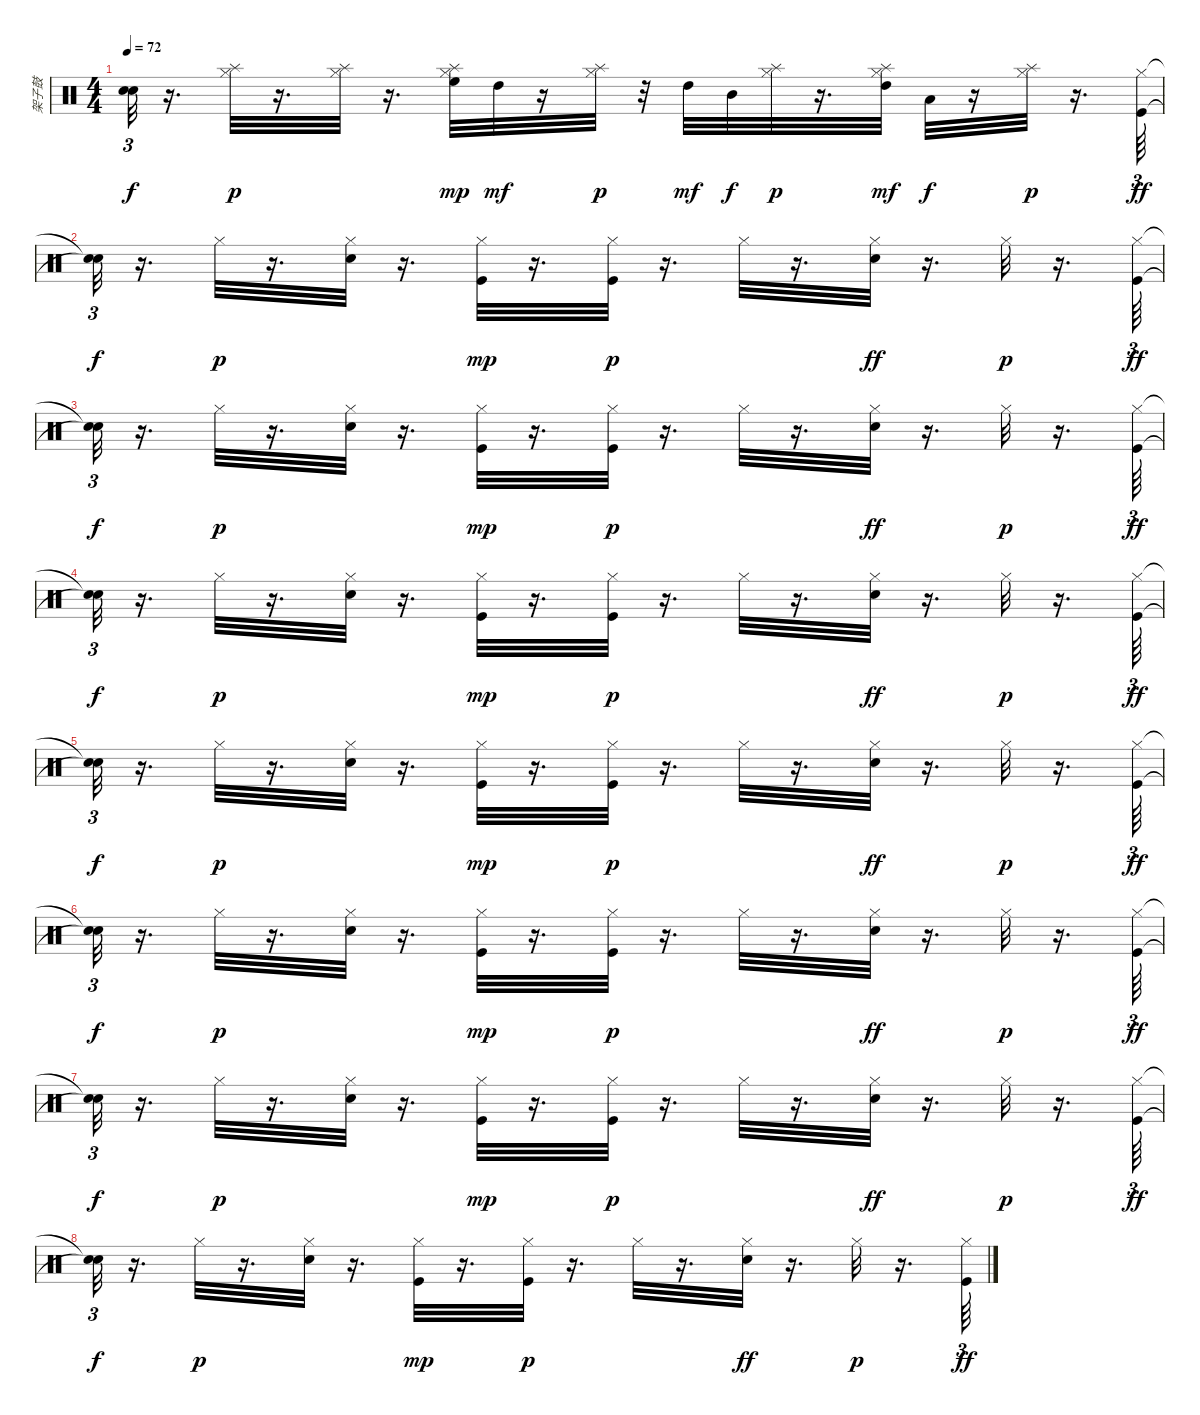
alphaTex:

\track ("架子鼓" "架子鼓") {instrument percussion}
\staff {score}
\articulation defaults
\ts (4 4)
\tempo 72
\clef neutral
\ks c
("Snare (hit)"{t} "Snare (hit)"{t}).32{tu (3 2) dy f} r.16{d} ("Splash (hit)" "Hi-Hat (closed)").32{dy p} r.16{d} ("Splash (hit)" "Hi-Hat (closed)").32 r.16{d} ("Splash (hit)" "Hi-Hat (closed)" "High Floor Tom (hit)").32{dy mp} "High Tom (hit)".32{dy mf} r.16 ("Splash (hit)" "Hi-Hat (closed)").32{dy p} r.32 "High Tom (hit)".32{dy mf} "Mid Tom (hit)".32{dy f} ("Splash (hit)" "Hi-Hat (closed)").32{dy p} r.16{d} ("Splash (hit)" "Hi-Hat (closed)" "High Tom (hit)").32{dy mf} "Low Tom (hit)".32{dy f} r.16 ("Splash (hit)" "Hi-Hat (closed)").32{dy p} r.16{d} ("Hi-Hat (closed)" "Kick (hit)").64{tu (3 2) dy ff} |
("Snare (hit)"{t} "Snare (hit)"{t}).32{tu (3 2) dy f} r.16{d} "Hi-Hat (closed)".32{dy p} r.16{d} ("Hi-Hat (closed)" "Snare (hit) 2").32 r.16{d} ("Hi-Hat (closed)" "Kick (hit)").32{dy mp} r.16{d} ("Hi-Hat (closed)" "Kick (hit)").32{dy p} r.16{d} "Hi-Hat (closed)".32 r.16{d} ("Hi-Hat (closed)" "Snare (hit) 2").32{dy ff} r.16{d} "Hi-Hat (closed)".32{dy p} r.16{d} ("Hi-Hat (closed)" "Kick (hit)").64{tu (3 2) dy ff} |
("Snare (hit)"{t} "Snare (hit)"{t}).32{tu (3 2) dy f} r.16{d} "Hi-Hat (closed)".32{dy p} r.16{d} ("Hi-Hat (closed)" "Snare (hit) 2").32 r.16{d} ("Hi-Hat (closed)" "Kick (hit)").32{dy mp} r.16{d} ("Hi-Hat (closed)" "Kick (hit)").32{dy p} r.16{d} "Hi-Hat (closed)".32 r.16{d} ("Hi-Hat (closed)" "Snare (hit) 2").32{dy ff} r.16{d} "Hi-Hat (closed)".32{dy p} r.16{d} ("Hi-Hat (closed)" "Kick (hit)").64{tu (3 2) dy ff} |
("Snare (hit)"{t} "Snare (hit)"{t}).32{tu (3 2) dy f} r.16{d} "Hi-Hat (closed)".32{dy p} r.16{d} ("Hi-Hat (closed)" "Snare (hit) 2").32 r.16{d} ("Hi-Hat (closed)" "Kick (hit)").32{dy mp} r.16{d} ("Hi-Hat (closed)" "Kick (hit)").32{dy p} r.16{d} "Hi-Hat (closed)".32 r.16{d} ("Hi-Hat (closed)" "Snare (hit) 2").32{dy ff} r.16{d} "Hi-Hat (closed)".32{dy p} r.16{d} ("Hi-Hat (closed)" "Kick (hit)").64{tu (3 2) dy ff} |
("Snare (hit)"{t} "Snare (hit)"{t}).32{tu (3 2) dy f} r.16{d} "Hi-Hat (closed)".32{dy p} r.16{d} ("Hi-Hat (closed)" "Snare (hit) 2").32 r.16{d} ("Hi-Hat (closed)" "Kick (hit)").32{dy mp} r.16{d} ("Hi-Hat (closed)" "Kick (hit)").32{dy p} r.16{d} "Hi-Hat (closed)".32 r.16{d} ("Hi-Hat (closed)" "Snare (hit) 2").32{dy ff} r.16{d} "Hi-Hat (closed)".32{dy p} r.16{d} ("Hi-Hat (closed)" "Kick (hit)").64{tu (3 2) dy ff} |
("Snare (hit)"{t} "Snare (hit)"{t}).32{tu (3 2) dy f} r.16{d} "Hi-Hat (closed)".32{dy p} r.16{d} ("Hi-Hat (closed)" "Snare (hit) 2").32 r.16{d} ("Hi-Hat (closed)" "Kick (hit)").32{dy mp} r.16{d} ("Hi-Hat (closed)" "Kick (hit)").32{dy p} r.16{d} "Hi-Hat (closed)".32 r.16{d} ("Hi-Hat (closed)" "Snare (hit) 2").32{dy ff} r.16{d} "Hi-Hat (closed)".32{dy p} r.16{d} ("Hi-Hat (closed)" "Kick (hit)").64{tu (3 2) dy ff} |
("Snare (hit)"{t} "Snare (hit)"{t}).32{tu (3 2) dy f} r.16{d} "Hi-Hat (closed)".32{dy p} r.16{d} ("Hi-Hat (closed)" "Snare (hit) 2").32 r.16{d} ("Hi-Hat (closed)" "Kick (hit)").32{dy mp} r.16{d} ("Hi-Hat (closed)" "Kick (hit)").32{dy p} r.16{d} "Hi-Hat (closed)".32 r.16{d} ("Hi-Hat (closed)" "Snare (hit) 2").32{dy ff} r.16{d} "Hi-Hat (closed)".32{dy p} r.16{d} ("Hi-Hat (closed)" "Kick (hit)").64{tu (3 2) dy ff} |
("Snare (hit)"{t} "Snare (hit)"{t}).32{tu (3 2) dy f} r.16{d} "Hi-Hat (closed)".32{dy p} r.16{d} ("Hi-Hat (closed)" "Snare (hit) 2").32 r.16{d} ("Hi-Hat (closed)" "Kick (hit)").32{dy mp} r.16{d} ("Hi-Hat (closed)" "Kick (hit)").32{dy p} r.16{d} "Hi-Hat (closed)".32 r.16{d} ("Hi-Hat (closed)" "Snare (hit) 2").32{dy ff} r.16{d} "Hi-Hat (closed)".32{dy p} r.16{d} ("Hi-Hat (closed)" "Kick (hit)").64{tu (3 2) dy ff}
